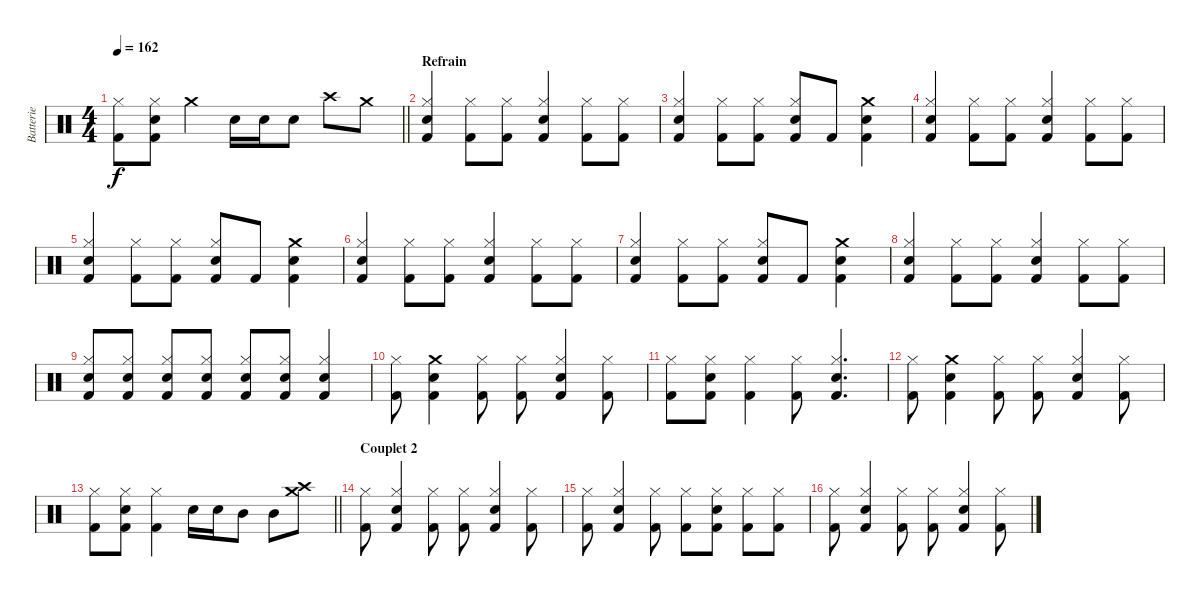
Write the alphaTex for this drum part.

\track ("Batterie" "Batterie") {instrument percussion}
\staff {score}
\articulation defaults
\ts (4 4)
\tempo 162
\clef neutral
\barLineRight lightlight
\ks c
("Kick (hit) 2" "Hi-Hat (closed)").8{dy f} ("Kick (hit) 2" "Snare (hit) 2" "Hi-Hat (closed)").8 "Crash medium (hit)".4 "Snare (hit) 2".16 "Snare (hit) 2".16 "Electric Snare (hit)".8 "Crash high (hit)".8 "Crash medium (hit)".8 |
\section ("" "Refrain")
("Kick (hit) 2" "Snare (hit) 2" "Hi-Hat (closed)").4 ("Kick (hit) 2" "Hi-Hat (closed)").8 ("Kick (hit) 2" "Hi-Hat (closed)").8 ("Kick (hit) 2" "Snare (hit) 2" "Hi-Hat (closed)").4 ("Kick (hit) 2" "Hi-Hat (closed)").8 ("Kick (hit) 2" "Hi-Hat (closed)").8 |
("Kick (hit) 2" "Snare (hit) 2" "Hi-Hat (closed)").4 ("Kick (hit) 2" "Hi-Hat (closed)").8 ("Kick (hit) 2" "Hi-Hat (closed)").8 ("Kick (hit) 2" "Snare (hit) 2" "Hi-Hat (closed)").8 "Kick (hit) 2".8 ("Kick (hit) 2" "Snare (hit) 2" "Crash medium (hit)").4 |
("Kick (hit) 2" "Snare (hit) 2" "Hi-Hat (closed)").4 ("Kick (hit) 2" "Hi-Hat (closed)").8 ("Kick (hit) 2" "Hi-Hat (closed)").8 ("Kick (hit) 2" "Snare (hit) 2" "Hi-Hat (closed)").4 ("Kick (hit) 2" "Hi-Hat (closed)").8 ("Kick (hit) 2" "Hi-Hat (closed)").8 |
("Kick (hit) 2" "Snare (hit) 2" "Hi-Hat (closed)").4 ("Kick (hit) 2" "Hi-Hat (closed)").8 ("Kick (hit) 2" "Hi-Hat (closed)").8 ("Kick (hit) 2" "Snare (hit) 2" "Hi-Hat (closed)").8 "Kick (hit) 2".8 ("Kick (hit) 2" "Snare (hit) 2" "Crash medium (hit)").4 |
("Kick (hit) 2" "Snare (hit) 2" "Hi-Hat (closed)").4 ("Kick (hit) 2" "Hi-Hat (closed)").8 ("Kick (hit) 2" "Hi-Hat (closed)").8 ("Kick (hit) 2" "Snare (hit) 2" "Hi-Hat (closed)").4 ("Kick (hit) 2" "Hi-Hat (closed)").8 ("Kick (hit) 2" "Hi-Hat (closed)").8 |
("Kick (hit) 2" "Snare (hit) 2" "Hi-Hat (closed)").4 ("Kick (hit) 2" "Hi-Hat (closed)").8 ("Kick (hit) 2" "Hi-Hat (closed)").8 ("Kick (hit) 2" "Snare (hit) 2" "Hi-Hat (closed)").8 "Kick (hit) 2".8 ("Kick (hit) 2" "Snare (hit) 2" "Crash medium (hit)").4 |
("Kick (hit) 2" "Snare (hit) 2" "Hi-Hat (closed)").4 ("Kick (hit) 2" "Hi-Hat (closed)").8 ("Kick (hit) 2" "Hi-Hat (closed)").8 ("Kick (hit) 2" "Snare (hit) 2" "Hi-Hat (closed)").4 ("Kick (hit) 2" "Hi-Hat (closed)").8 ("Kick (hit) 2" "Hi-Hat (closed)").8 |
("Kick (hit) 2" "Snare (hit) 2" "Hi-Hat (closed)").8 ("Kick (hit) 2" "Snare (hit) 2" "Hi-Hat (closed)").8 ("Kick (hit) 2" "Snare (hit) 2" "Hi-Hat (closed)").8 ("Kick (hit) 2" "Snare (hit) 2" "Hi-Hat (closed)").8 ("Kick (hit) 2" "Snare (hit) 2" "Hi-Hat (closed)").8 ("Kick (hit) 2" "Snare (hit) 2" "Hi-Hat (closed)").8 ("Kick (hit) 2" "Snare (hit) 2" "Hi-Hat (closed)").4 |
("Kick (hit) 2" "Hi-Hat (closed)").8 ("Kick (hit) 2" "Snare (hit) 2" "Crash medium (hit)").4 ("Kick (hit) 2" "Hi-Hat (closed)").8 ("Kick (hit) 2" "Hi-Hat (closed)").8 ("Kick (hit) 2" "Snare (hit) 2" "Hi-Hat (closed)").4 ("Kick (hit) 2" "Hi-Hat (closed)").8 |
("Kick (hit) 2" "Hi-Hat (closed)").8 ("Kick (hit) 2" "Snare (hit) 2" "Hi-Hat (closed)").8 ("Kick (hit) 2" "Hi-Hat (closed)").4 ("Kick (hit) 2" "Hi-Hat (closed)").8 ("Kick (hit) 2" "Snare (hit) 2" "Hi-Hat (closed)").4{d} |
("Kick (hit) 2" "Hi-Hat (closed)").8 ("Kick (hit) 2" "Snare (hit) 2" "Crash medium (hit)").4 ("Kick (hit) 2" "Hi-Hat (closed)").8 ("Kick (hit) 2" "Hi-Hat (closed)").8 ("Kick (hit) 2" "Snare (hit) 2" "Hi-Hat (closed)").4 ("Kick (hit) 2" "Hi-Hat (closed)").8 |
\barLineRight lightlight
("Kick (hit) 2" "Hi-Hat (closed)").8 ("Kick (hit) 2" "Snare (hit) 2" "Hi-Hat (closed)").8 ("Kick (hit) 2" "Hi-Hat (closed)").4 "Snare (hit) 2".16 "Snare (hit) 2".16 "Mid Tom (hit)".8 "Mid Tom (hit)".8 ("Crash medium (hit)" "Crash high (hit)").8 |
\section ("" "Couplet 2")
("Kick (hit) 2" "Hi-Hat (closed)").8 ("Kick (hit) 2" "Snare (hit) 2" "Hi-Hat (closed)").4 ("Kick (hit) 2" "Hi-Hat (closed)").8 ("Kick (hit) 2" "Hi-Hat (closed)").8 ("Kick (hit) 2" "Snare (hit) 2" "Hi-Hat (closed)").4 ("Kick (hit) 2" "Hi-Hat (closed)").8 |
("Kick (hit) 2" "Hi-Hat (closed)").8 ("Kick (hit) 2" "Snare (hit) 2" "Hi-Hat (closed)").4 ("Kick (hit) 2" "Hi-Hat (closed)").8 ("Kick (hit) 2" "Hi-Hat (closed)").8 ("Kick (hit) 2" "Snare (hit) 2" "Hi-Hat (closed)").8 ("Kick (hit) 2" "Hi-Hat (closed)").8 ("Kick (hit) 2" "Hi-Hat (closed)").8 |
("Kick (hit) 2" "Hi-Hat (closed)").8 ("Kick (hit) 2" "Snare (hit) 2" "Hi-Hat (closed)").4 ("Kick (hit) 2" "Hi-Hat (closed)").8 ("Kick (hit) 2" "Hi-Hat (closed)").8 ("Kick (hit) 2" "Snare (hit) 2" "Hi-Hat (closed)").4 ("Kick (hit) 2" "Hi-Hat (closed)").8
